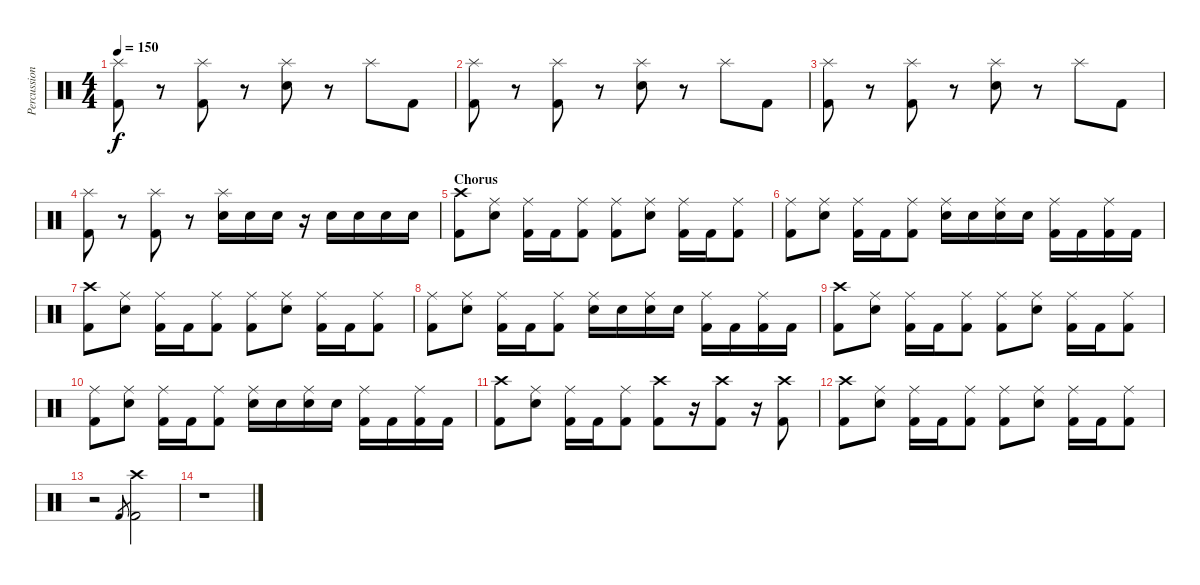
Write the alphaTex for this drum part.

\track ("Percussion" "Percussion") {instrument percussion}
\staff {score}
\articulation defaults
\ts (4 4)
\tempo 150
\clef neutral
\ks c
("Splash (hit)" "Kick (hit) 2").8{dy f} r.8 ("Splash (hit)" "Kick (hit) 2").8 r.8 ("Splash (hit)" "Electric Snare (hit)").8 r.8 "Splash (hit)".8 "Kick (hit) 2".8 |
("Splash (hit)" "Kick (hit) 2").8 r.8 ("Splash (hit)" "Kick (hit) 2").8 r.8 ("Splash (hit)" "Electric Snare (hit)").8 r.8 "Splash (hit)".8 "Kick (hit) 2".8 |
("Splash (hit)" "Kick (hit) 2").8 r.8 ("Splash (hit)" "Kick (hit) 2").8 r.8 ("Splash (hit)" "Electric Snare (hit)").8 r.8 "Splash (hit)".8 "Kick (hit) 2".8 |
("Splash (hit)" "Kick (hit) 2").8 r.8 ("Splash (hit)" "Kick (hit) 2").8 r.8 ("Splash (hit)" "Electric Snare (hit)").16 "Electric Snare (hit)".16 "Electric Snare (hit)".16 r.16 "Electric Snare (hit)".16 "Electric Snare (hit)".16 "Electric Snare (hit)".16 "Electric Snare (hit)".16 |
\section ("" "Chorus")
("Crash high (hit)" "Kick (hit) 2").8 ("Ride (middle)" "Electric Snare (hit)").8 ("Ride (middle)" "Kick (hit) 2").16 "Kick (hit) 2".16 ("Ride (middle)" "Kick (hit) 2").8 ("Ride (middle)" "Kick (hit) 2").8 ("Ride (middle)" "Electric Snare (hit)").8 ("Ride (middle)" "Kick (hit) 2").16 "Kick (hit) 2".16 ("Ride (middle)" "Kick (hit) 2").8 |
("Ride (middle)" "Kick (hit) 2").8 ("Ride (middle)" "Electric Snare (hit)").8 ("Ride (middle)" "Kick (hit) 2").16 "Kick (hit) 2".16 ("Ride (middle)" "Kick (hit) 2").8 ("Ride (middle)" "Electric Snare (hit)").16 "Electric Snare (hit)".16 ("Ride (middle)" "Electric Snare (hit)").16 "Electric Snare (hit)".16 ("Ride (middle)" "Kick (hit) 2").16 "Kick (hit) 2".16 ("Ride (middle)" "Kick (hit) 2").16 "Kick (hit) 2".16 |
("Crash high (hit)" "Kick (hit) 2").8 ("Ride (middle)" "Electric Snare (hit)").8 ("Ride (middle)" "Kick (hit) 2").16 "Kick (hit) 2".16 ("Ride (middle)" "Kick (hit) 2").8 ("Ride (middle)" "Kick (hit) 2").8 ("Ride (middle)" "Electric Snare (hit)").8 ("Ride (middle)" "Kick (hit) 2").16 "Kick (hit) 2".16 ("Ride (middle)" "Kick (hit) 2").8 |
("Ride (middle)" "Kick (hit) 2").8 ("Ride (middle)" "Electric Snare (hit)").8 ("Ride (middle)" "Kick (hit) 2").16 "Kick (hit) 2".16 ("Ride (middle)" "Kick (hit) 2").8 ("Ride (middle)" "Electric Snare (hit)").16 "Electric Snare (hit)".16 ("Ride (middle)" "Electric Snare (hit)").16 "Electric Snare (hit)".16 ("Ride (middle)" "Kick (hit) 2").16 "Kick (hit) 2".16 ("Ride (middle)" "Kick (hit) 2").16 "Kick (hit) 2".16 |
("Crash high (hit)" "Kick (hit) 2").8 ("Ride (middle)" "Electric Snare (hit)").8 ("Ride (middle)" "Kick (hit) 2").16 "Kick (hit) 2".16 ("Ride (middle)" "Kick (hit) 2").8 ("Ride (middle)" "Kick (hit) 2").8 ("Ride (middle)" "Electric Snare (hit)").8 ("Ride (middle)" "Kick (hit) 2").16 "Kick (hit) 2".16 ("Ride (middle)" "Kick (hit) 2").8 |
("Ride (middle)" "Kick (hit) 2").8 ("Ride (middle)" "Electric Snare (hit)").8 ("Ride (middle)" "Kick (hit) 2").16 "Kick (hit) 2".16 ("Ride (middle)" "Kick (hit) 2").8 ("Ride (middle)" "Electric Snare (hit)").16 "Electric Snare (hit)".16 ("Ride (middle)" "Electric Snare (hit)").16 "Electric Snare (hit)".16 ("Ride (middle)" "Kick (hit) 2").16 "Kick (hit) 2".16 ("Ride (middle)" "Kick (hit) 2").16 "Kick (hit) 2".16 |
("Crash high (hit)" "Kick (hit) 2").8 ("Ride (middle)" "Electric Snare (hit)").8 ("Ride (middle)" "Kick (hit) 2").16 "Kick (hit) 2".16 ("Ride (middle)" "Kick (hit) 2").8 ("Crash high (hit)" "Kick (hit) 2").8 r.16 ("Crash high (hit)" "Kick (hit) 2").8 r.16 ("Crash high (hit)" "Kick (hit) 2").8 |
("Crash high (hit)" "Kick (hit) 2").8 ("Ride (middle)" "Electric Snare (hit)").8 ("Ride (middle)" "Kick (hit) 2").16 "Kick (hit) 2".16 ("Ride (middle)" "Kick (hit) 2").8 ("Ride (middle)" "Kick (hit) 2").8 ("Ride (middle)" "Electric Snare (hit)").8 ("Ride (middle)" "Kick (hit) 2").16 "Kick (hit) 2".16 ("Ride (middle)" "Kick (hit) 2").8 |
r.2 "Kick (hit) 2".8{gr} ("Crash high (hit)" "Kick (hit) 2").2 |
r.1
